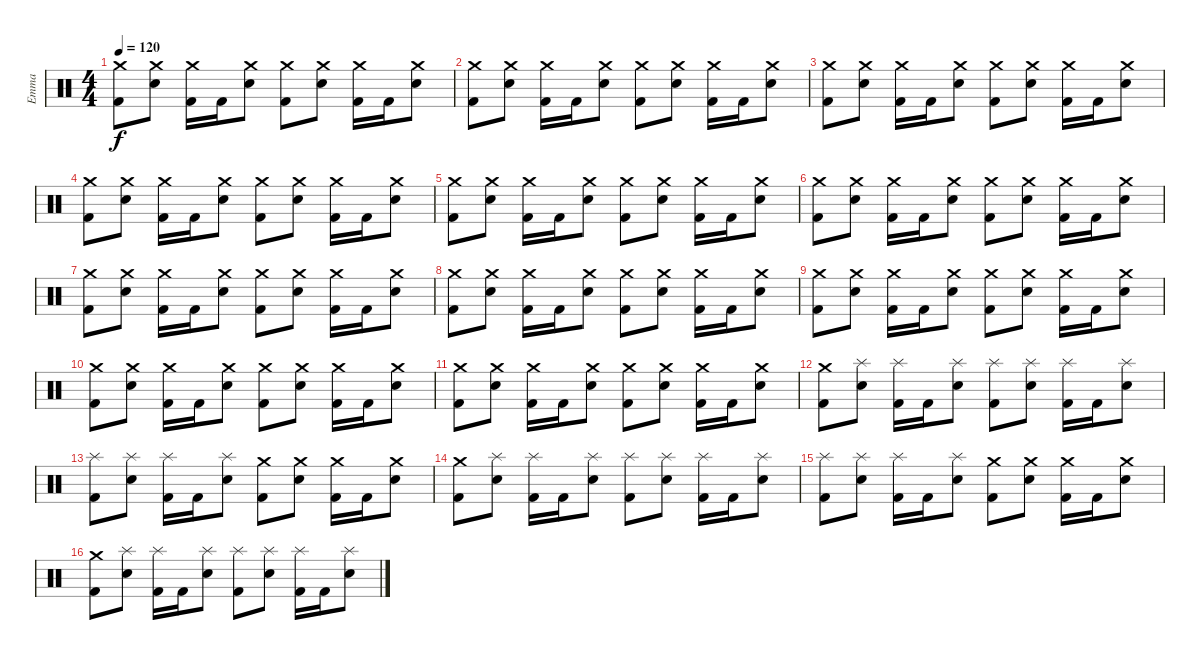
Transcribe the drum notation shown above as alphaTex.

\track ("Emma" "Emma") {instrument percussion}
\staff {score}
\articulation defaults
\ts (4 4)
\tempo 120
\clef neutral
\ks c
("Crash medium (hit)" "Kick (hit) 2").8{dy f} ("Crash medium (hit)" "Electric Snare (hit)").8 ("Crash medium (hit)" "Kick (hit) 2").16 "Kick (hit) 2".16 ("Crash medium (hit)" "Electric Snare (hit)").8 ("Crash medium (hit)" "Kick (hit) 2").8 ("Crash medium (hit)" "Electric Snare (hit)").8 ("Crash medium (hit)" "Kick (hit) 2").16 "Kick (hit) 2".16 ("Crash medium (hit)" "Electric Snare (hit)").8 |
("Crash medium (hit)" "Kick (hit) 2").8 ("Crash medium (hit)" "Electric Snare (hit)").8 ("Crash medium (hit)" "Kick (hit) 2").16 "Kick (hit) 2".16 ("Crash medium (hit)" "Electric Snare (hit)").8 ("Crash medium (hit)" "Kick (hit) 2").8 ("Crash medium (hit)" "Electric Snare (hit)").8 ("Crash medium (hit)" "Kick (hit) 2").16 "Kick (hit) 2".16 ("Crash medium (hit)" "Electric Snare (hit)").8 |
("Crash medium (hit)" "Kick (hit) 2").8 ("Crash medium (hit)" "Electric Snare (hit)").8 ("Crash medium (hit)" "Kick (hit) 2").16 "Kick (hit) 2".16 ("Crash medium (hit)" "Electric Snare (hit)").8 ("Crash medium (hit)" "Kick (hit) 2").8 ("Crash medium (hit)" "Electric Snare (hit)").8 ("Crash medium (hit)" "Kick (hit) 2").16 "Kick (hit) 2".16 ("Crash medium (hit)" "Electric Snare (hit)").8 |
("Crash medium (hit)" "Kick (hit) 2").8 ("Crash medium (hit)" "Electric Snare (hit)").8 ("Crash medium (hit)" "Kick (hit) 2").16 "Kick (hit) 2".16 ("Crash medium (hit)" "Electric Snare (hit)").8 ("Crash medium (hit)" "Kick (hit) 2").8 ("Crash medium (hit)" "Electric Snare (hit)").8 ("Crash medium (hit)" "Kick (hit) 2").16 "Kick (hit) 2".16 ("Crash medium (hit)" "Electric Snare (hit)").8 |
("Crash medium (hit)" "Kick (hit) 2").8 ("Crash medium (hit)" "Electric Snare (hit)").8 ("Crash medium (hit)" "Kick (hit) 2").16 "Kick (hit) 2".16 ("Crash medium (hit)" "Electric Snare (hit)").8 ("Crash medium (hit)" "Kick (hit) 2").8 ("Crash medium (hit)" "Electric Snare (hit)").8 ("Crash medium (hit)" "Kick (hit) 2").16 "Kick (hit) 2".16 ("Crash medium (hit)" "Electric Snare (hit)").8 |
("Crash medium (hit)" "Kick (hit) 2").8 ("Crash medium (hit)" "Electric Snare (hit)").8 ("Crash medium (hit)" "Kick (hit) 2").16 "Kick (hit) 2".16 ("Crash medium (hit)" "Electric Snare (hit)").8 ("Crash medium (hit)" "Kick (hit) 2").8 ("Crash medium (hit)" "Electric Snare (hit)").8 ("Crash medium (hit)" "Kick (hit) 2").16 "Kick (hit) 2".16 ("Crash medium (hit)" "Electric Snare (hit)").8 |
("Crash medium (hit)" "Kick (hit) 2").8 ("Crash medium (hit)" "Electric Snare (hit)").8 ("Crash medium (hit)" "Kick (hit) 2").16 "Kick (hit) 2".16 ("Crash medium (hit)" "Electric Snare (hit)").8 ("Crash medium (hit)" "Kick (hit) 2").8 ("Crash medium (hit)" "Electric Snare (hit)").8 ("Crash medium (hit)" "Kick (hit) 2").16 "Kick (hit) 2".16 ("Crash medium (hit)" "Electric Snare (hit)").8 |
("Crash medium (hit)" "Kick (hit) 2").8 ("Crash medium (hit)" "Electric Snare (hit)").8 ("Crash medium (hit)" "Kick (hit) 2").16 "Kick (hit) 2".16 ("Crash medium (hit)" "Electric Snare (hit)").8 ("Crash medium (hit)" "Kick (hit) 2").8 ("Crash medium (hit)" "Electric Snare (hit)").8 ("Crash medium (hit)" "Kick (hit) 2").16 "Kick (hit) 2".16 ("Crash medium (hit)" "Electric Snare (hit)").8 |
("Crash medium (hit)" "Kick (hit) 2").8 ("Crash medium (hit)" "Electric Snare (hit)").8 ("Crash medium (hit)" "Kick (hit) 2").16 "Kick (hit) 2".16 ("Crash medium (hit)" "Electric Snare (hit)").8 ("Crash medium (hit)" "Kick (hit) 2").8 ("Crash medium (hit)" "Electric Snare (hit)").8 ("Crash medium (hit)" "Kick (hit) 2").16 "Kick (hit) 2".16 ("Crash medium (hit)" "Electric Snare (hit)").8 |
("Crash medium (hit)" "Kick (hit) 2").8 ("Crash medium (hit)" "Electric Snare (hit)").8 ("Crash medium (hit)" "Kick (hit) 2").16 "Kick (hit) 2".16 ("Crash medium (hit)" "Electric Snare (hit)").8 ("Crash medium (hit)" "Kick (hit) 2").8 ("Crash medium (hit)" "Electric Snare (hit)").8 ("Crash medium (hit)" "Kick (hit) 2").16 "Kick (hit) 2".16 ("Crash medium (hit)" "Electric Snare (hit)").8 |
("Crash medium (hit)" "Kick (hit) 2").8 ("Crash medium (hit)" "Electric Snare (hit)").8 ("Crash medium (hit)" "Kick (hit) 2").16 "Kick (hit) 2".16 ("Crash medium (hit)" "Electric Snare (hit)").8 ("Crash medium (hit)" "Kick (hit) 2").8 ("Crash medium (hit)" "Electric Snare (hit)").8 ("Crash medium (hit)" "Kick (hit) 2").16 "Kick (hit) 2".16 ("Crash medium (hit)" "Electric Snare (hit)").8 |
("Crash medium (hit)" "Kick (hit) 2").8 ("Splash (hit)" "Electric Snare (hit)").8 ("Splash (hit)" "Kick (hit) 2").16 "Kick (hit) 2".16 ("Splash (hit)" "Electric Snare (hit)").8 ("Splash (hit)" "Kick (hit) 2").8 ("Splash (hit)" "Electric Snare (hit)").8 ("Splash (hit)" "Kick (hit) 2").16 "Kick (hit) 2".16 ("Splash (hit)" "Electric Snare (hit)").8 |
("Splash (hit)" "Kick (hit) 2").8 ("Splash (hit)" "Electric Snare (hit)").8 ("Splash (hit)" "Kick (hit) 2").16 "Kick (hit) 2".16 ("Splash (hit)" "Electric Snare (hit)").8 ("Crash medium (hit)" "Kick (hit) 2").8 ("Crash medium (hit)" "Electric Snare (hit)").8 ("Crash medium (hit)" "Kick (hit) 2").16 "Kick (hit) 2".16 ("Crash medium (hit)" "Electric Snare (hit)").8 |
("Crash medium (hit)" "Kick (hit) 2").8 ("Splash (hit)" "Electric Snare (hit)").8 ("Splash (hit)" "Kick (hit) 2").16 "Kick (hit) 2".16 ("Splash (hit)" "Electric Snare (hit)").8 ("Splash (hit)" "Kick (hit) 2").8 ("Splash (hit)" "Electric Snare (hit)").8 ("Splash (hit)" "Kick (hit) 2").16 "Kick (hit) 2".16 ("Splash (hit)" "Electric Snare (hit)").8 |
("Splash (hit)" "Kick (hit) 2").8 ("Splash (hit)" "Electric Snare (hit)").8 ("Splash (hit)" "Kick (hit) 2").16 "Kick (hit) 2".16 ("Splash (hit)" "Electric Snare (hit)").8 ("Crash medium (hit)" "Kick (hit) 2").8 ("Crash medium (hit)" "Electric Snare (hit)").8 ("Crash medium (hit)" "Kick (hit) 2").16 "Kick (hit) 2".16 ("Crash medium (hit)" "Electric Snare (hit)").8 |
("Crash medium (hit)" "Kick (hit) 2").8 ("Splash (hit)" "Electric Snare (hit)").8 ("Splash (hit)" "Kick (hit) 2").16 "Kick (hit) 2".16 ("Splash (hit)" "Electric Snare (hit)").8 ("Splash (hit)" "Kick (hit) 2").8 ("Splash (hit)" "Electric Snare (hit)").8 ("Splash (hit)" "Kick (hit) 2").16 "Kick (hit) 2".16 ("Splash (hit)" "Electric Snare (hit)").8
